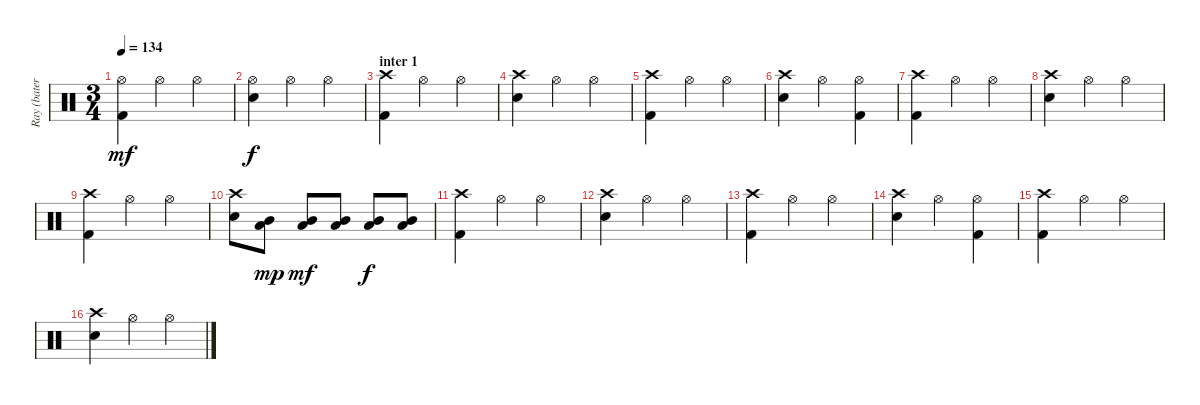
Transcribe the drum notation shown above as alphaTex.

\track ("Ray (batería)" "Ray (bater") {instrument percussion}
\staff {score}
\articulation defaults
\ts (3 4)
\tempo 134
\clef neutral
\ks c
("Hi-Hat (open)" "Kick (hit) 2").4{dy mf} "Hi-Hat (open)".4 "Hi-Hat (open)".4 |
("Hi-Hat (open)" "Snare (hit) 2").4{dy f} "Hi-Hat (open)".4 "Hi-Hat (open)".4 |
\section ("" "inter 1")
("Crash high (hit)" "Kick (hit) 2").4 "Hi-Hat (open)".4 "Hi-Hat (open)".4 |
("Crash high (hit)" "Snare (hit) 2").4 "Hi-Hat (open)".4 "Hi-Hat (open)".4 |
("Crash high (hit)" "Kick (hit) 2").4 "Hi-Hat (open)".4 "Hi-Hat (open)".4 |
("Crash high (hit)" "Snare (hit) 2").4 "Hi-Hat (open)".4 ("Hi-Hat (open)" "Kick (hit) 2").4 |
("Crash high (hit)" "Kick (hit) 2").4 "Hi-Hat (open)".4 "Hi-Hat (open)".4 |
("Crash high (hit)" "Snare (hit) 2").4 "Hi-Hat (open)".4 "Hi-Hat (open)".4 |
("Crash high (hit)" "Kick (hit) 2").4 "Hi-Hat (open)".4 "Hi-Hat (open)".4 |
("Crash high (hit)" "Snare (hit) 2").8 ("Mid Tom (hit)" "Low Tom (hit)").8{dy mp} ("Mid Tom (hit)" "Low Tom (hit)").8{dy mf} ("Mid Tom (hit)" "Low Tom (hit)").8 ("Mid Tom (hit)" "Low Tom (hit)").8{dy f} ("Mid Tom (hit)" "Low Tom (hit)").8 |
("Crash high (hit)" "Kick (hit) 2").4 "Hi-Hat (open)".4 "Hi-Hat (open)".4 |
("Crash high (hit)" "Snare (hit) 2").4 "Hi-Hat (open)".4 "Hi-Hat (open)".4 |
("Crash high (hit)" "Kick (hit) 2").4 "Hi-Hat (open)".4 "Hi-Hat (open)".4 |
("Crash high (hit)" "Snare (hit) 2").4 "Hi-Hat (open)".4 ("Hi-Hat (open)" "Kick (hit) 2").4 |
("Crash high (hit)" "Kick (hit) 2").4 "Hi-Hat (open)".4 "Hi-Hat (open)".4 |
("Crash high (hit)" "Snare (hit) 2").4 "Hi-Hat (open)".4 "Hi-Hat (open)".4
